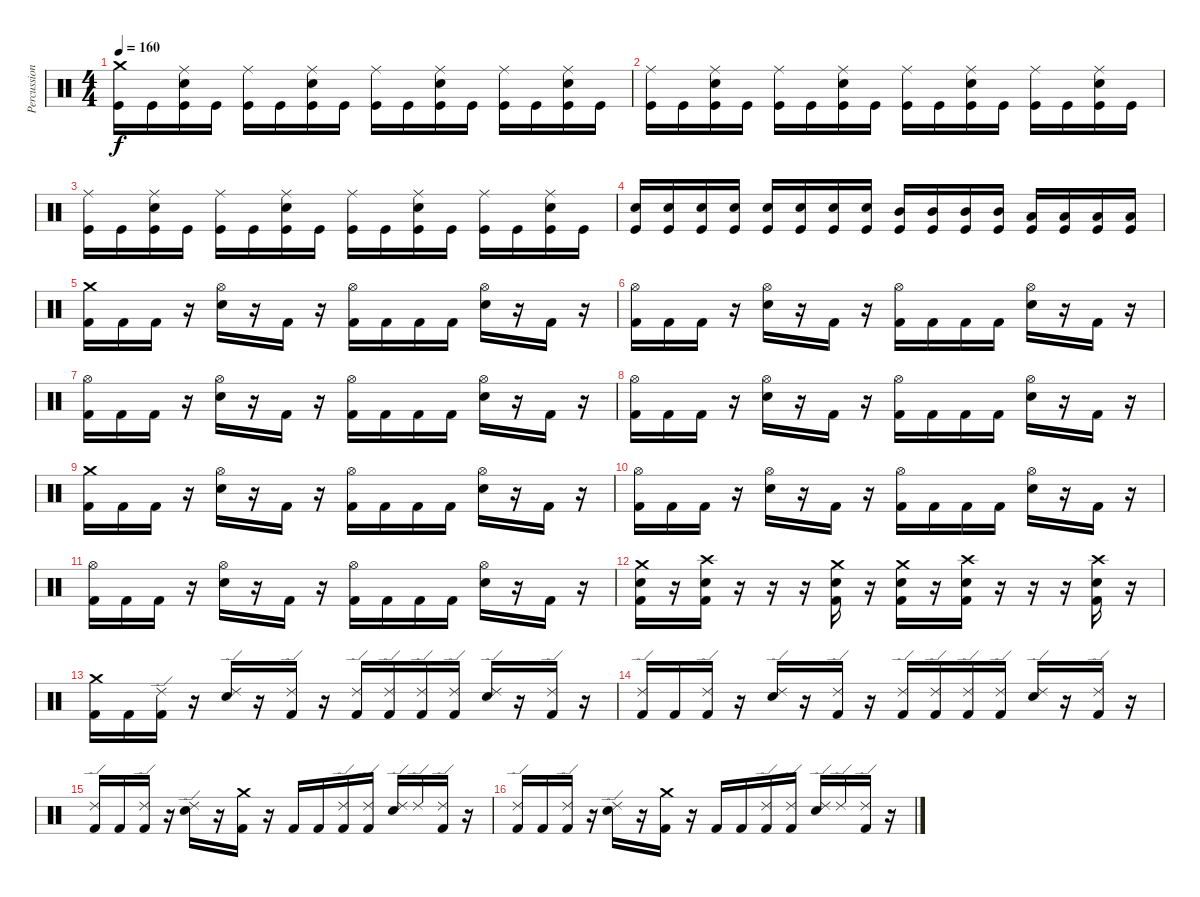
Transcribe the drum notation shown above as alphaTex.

\track ("Percussions" "Percussion") {instrument percussion}
\staff {score}
\articulation defaults
\ts (4 4)
\tempo 160
\clef neutral
\ks c
("Kick (hit)" "Crash medium (hit)").16{dy f} "Kick (hit)".16 ("Kick (hit)" "Snare (hit) 2" "Ride (middle)").16 "Kick (hit)".16 ("Kick (hit)" "Ride (middle)").16 "Kick (hit)".16 ("Kick (hit)" "Snare (hit) 2" "Ride (middle)").16 "Kick (hit)".16 ("Kick (hit)" "Ride (middle)").16 "Kick (hit)".16 ("Kick (hit)" "Snare (hit) 2" "Ride (middle)").16 "Kick (hit)".16 ("Kick (hit)" "Ride (middle)").16 "Kick (hit)".16 ("Kick (hit)" "Snare (hit) 2" "Ride (middle)").16 "Kick (hit)".16 |
("Kick (hit)" "Ride (middle)").16 "Kick (hit)".16 ("Kick (hit)" "Snare (hit) 2" "Ride (middle)").16 "Kick (hit)".16 ("Kick (hit)" "Ride (middle)").16 "Kick (hit)".16 ("Kick (hit)" "Snare (hit) 2" "Ride (middle)").16 "Kick (hit)".16 ("Kick (hit)" "Ride (middle)").16 "Kick (hit)".16 ("Kick (hit)" "Snare (hit) 2" "Ride (middle)").16 "Kick (hit)".16 ("Kick (hit)" "Ride (middle)").16 "Kick (hit)".16 ("Kick (hit)" "Snare (hit) 2" "Ride (middle)").16 "Kick (hit)".16 |
("Kick (hit)" "Ride (middle)").16 "Kick (hit)".16 ("Kick (hit)" "Snare (hit) 2" "Ride (middle)").16 "Kick (hit)".16 ("Kick (hit)" "Ride (middle)").16 "Kick (hit)".16 ("Kick (hit)" "Snare (hit) 2" "Ride (middle)").16 "Kick (hit)".16 ("Kick (hit)" "Ride (middle)").16 "Kick (hit)".16 ("Kick (hit)" "Snare (hit) 2" "Ride (middle)").16 "Kick (hit)".16 ("Kick (hit)" "Ride (middle)").16 "Kick (hit)".16 ("Kick (hit)" "Snare (hit) 2" "Ride (middle)").16 "Kick (hit)".16 |
("Kick (hit)" "Electric Snare (hit)").16 ("Kick (hit)" "Electric Snare (hit)").16 ("Kick (hit)" "Electric Snare (hit)").16 ("Kick (hit)" "Electric Snare (hit)").16 ("Kick (hit)" "Snare (hit) 2").16 ("Kick (hit)" "Snare (hit) 2").16 ("Kick (hit)" "Snare (hit) 2").16 ("Kick (hit)" "Snare (hit) 2").16 ("Kick (hit)" "Mid Tom (hit)").16 ("Kick (hit)" "Mid Tom (hit)").16 ("Kick (hit)" "Mid Tom (hit)").16 ("Kick (hit)" "Mid Tom (hit)").16 ("Kick (hit)" "Low Tom (hit)").16 ("Kick (hit)" "Low Tom (hit)").16 ("Kick (hit)" "Low Tom (hit)").16 ("Kick (hit)" "Low Tom (hit)").16 |
("Kick (hit) 2" "Crash medium (hit)").16 "Kick (hit) 2".16 "Kick (hit) 2".16 r.16 ("Snare (hit) 2" "Hi-Hat (open)").16 r.16 "Kick (hit) 2".16 r.16 ("Kick (hit) 2" "Hi-Hat (open)").16 "Kick (hit) 2".16 "Kick (hit) 2".16 "Kick (hit) 2".16 ("Snare (hit) 2" "Hi-Hat (open)").16 r.16 "Kick (hit) 2".16 r.16 |
("Kick (hit) 2" "Hi-Hat (open)").16 "Kick (hit) 2".16 "Kick (hit) 2".16 r.16 ("Snare (hit) 2" "Hi-Hat (open)").16 r.16 "Kick (hit) 2".16 r.16 ("Kick (hit) 2" "Hi-Hat (open)").16 "Kick (hit) 2".16 "Kick (hit) 2".16 "Kick (hit) 2".16 ("Snare (hit) 2" "Hi-Hat (open)").16 r.16 "Kick (hit) 2".16 r.16 |
("Kick (hit) 2" "Hi-Hat (open)").16 "Kick (hit) 2".16 "Kick (hit) 2".16 r.16 ("Snare (hit) 2" "Hi-Hat (open)").16 r.16 "Kick (hit) 2".16 r.16 ("Kick (hit) 2" "Hi-Hat (open)").16 "Kick (hit) 2".16 "Kick (hit) 2".16 "Kick (hit) 2".16 ("Snare (hit) 2" "Hi-Hat (open)").16 r.16 "Kick (hit) 2".16 r.16 |
("Kick (hit) 2" "Hi-Hat (open)").16 "Kick (hit) 2".16 "Kick (hit) 2".16 r.16 ("Snare (hit) 2" "Hi-Hat (open)").16 r.16 "Kick (hit) 2".16 r.16 ("Kick (hit) 2" "Hi-Hat (open)").16 "Kick (hit) 2".16 "Kick (hit) 2".16 "Kick (hit) 2".16 ("Snare (hit) 2" "Hi-Hat (open)").16 r.16 "Kick (hit) 2".16 r.16 |
("Kick (hit) 2" "Crash medium (hit)").16 "Kick (hit) 2".16 "Kick (hit) 2".16 r.16 ("Snare (hit) 2" "Hi-Hat (open)").16 r.16 "Kick (hit) 2".16 r.16 ("Kick (hit) 2" "Hi-Hat (open)").16 "Kick (hit) 2".16 "Kick (hit) 2".16 "Kick (hit) 2".16 ("Snare (hit) 2" "Hi-Hat (open)").16 r.16 "Kick (hit) 2".16 r.16 |
("Kick (hit) 2" "Hi-Hat (open)").16 "Kick (hit) 2".16 "Kick (hit) 2".16 r.16 ("Snare (hit) 2" "Hi-Hat (open)").16 r.16 "Kick (hit) 2".16 r.16 ("Kick (hit) 2" "Hi-Hat (open)").16 "Kick (hit) 2".16 "Kick (hit) 2".16 "Kick (hit) 2".16 ("Snare (hit) 2" "Hi-Hat (open)").16 r.16 "Kick (hit) 2".16 r.16 |
("Kick (hit) 2" "Hi-Hat (open)").16 "Kick (hit) 2".16 "Kick (hit) 2".16 r.16 ("Snare (hit) 2" "Hi-Hat (open)").16 r.16 "Kick (hit) 2".16 r.16 ("Kick (hit) 2" "Hi-Hat (open)").16 "Kick (hit) 2".16 "Kick (hit) 2".16 "Kick (hit) 2".16 ("Snare (hit) 2" "Hi-Hat (open)").16 r.16 "Kick (hit) 2".16 r.16 |
("Crash medium (hit)" "Kick (hit) 2" "Electric Snare (hit)").16 r.16 ("Crash high (hit)" "Kick (hit) 2" "Electric Snare (hit)").16 r.16 r.16 r.16 ("Crash medium (hit)" "Kick (hit) 2" "Electric Snare (hit)").16 r.16 ("Crash medium (hit)" "Kick (hit) 2" "Electric Snare (hit)").16 r.16 ("Crash high (hit)" "Kick (hit) 2" "Electric Snare (hit)").16 r.16 r.16 r.16 ("Crash high (hit)" "Electric Snare (hit)" "Kick (hit) 2").16 r.16 |
("Kick (hit) 2" "Crash medium (hit)").16 "Kick (hit) 2".16 ("Kick (hit) 2" "Ride (edge) 2").16 r.16 ("Snare (hit) 2" "Ride (edge) 2").16 r.16 ("Kick (hit) 2" "Ride (edge) 2").16 r.16 ("Kick (hit) 2" "Ride (edge) 2").16 ("Kick (hit) 2" "Ride (edge) 2").16 ("Kick (hit) 2" "Ride (edge) 2").16 ("Kick (hit) 2" "Ride (edge) 2").16 ("Snare (hit) 2" "Ride (edge) 2").16 r.16 ("Kick (hit) 2" "Ride (edge) 2").16 r.16 |
("Kick (hit) 2" "Ride (edge) 2").16 "Kick (hit) 2".16 ("Kick (hit) 2" "Ride (edge) 2").16 r.16 ("Snare (hit) 2" "Ride (edge) 2").16 r.16 ("Kick (hit) 2" "Ride (edge) 2").16 r.16 ("Kick (hit) 2" "Ride (edge) 2").16 ("Kick (hit) 2" "Ride (edge) 2").16 ("Kick (hit) 2" "Ride (edge) 2").16 ("Kick (hit) 2" "Ride (edge) 2").16 ("Snare (hit) 2" "Ride (edge) 2").16 r.16 ("Kick (hit) 2" "Ride (edge) 2").16 r.16 |
("Kick (hit) 2" "Ride (edge) 2").16 "Kick (hit) 2".16 ("Kick (hit) 2" "Ride (edge) 2").16 r.16 ("Snare (hit) 2" "Ride (edge) 2").16 r.16 ("Kick (hit) 2" "Crash medium (hit)").16 r.16 "Kick (hit) 2".16 "Kick (hit) 2".16 ("Kick (hit) 2" "Ride (edge) 2").16 ("Kick (hit) 2" "Ride (edge) 2").16 ("Snare (hit) 2" "Ride (edge) 2").16 "Ride (edge) 2".16 ("Kick (hit) 2" "Ride (edge) 2").16 r.16 |
("Kick (hit) 2" "Ride (edge) 2").16 "Kick (hit) 2".16 ("Kick (hit) 2" "Ride (edge) 2").16 r.16 ("Snare (hit) 2" "Ride (edge) 2").16 r.16 ("Kick (hit) 2" "Crash medium (hit)").16 r.16 "Kick (hit) 2".16 "Kick (hit) 2".16 ("Kick (hit) 2" "Ride (edge) 2").16 ("Kick (hit) 2" "Ride (edge) 2").16 ("Snare (hit) 2" "Ride (edge) 2").16 "Ride (edge) 2".16 ("Kick (hit) 2" "Ride (edge) 2").16 r.16
